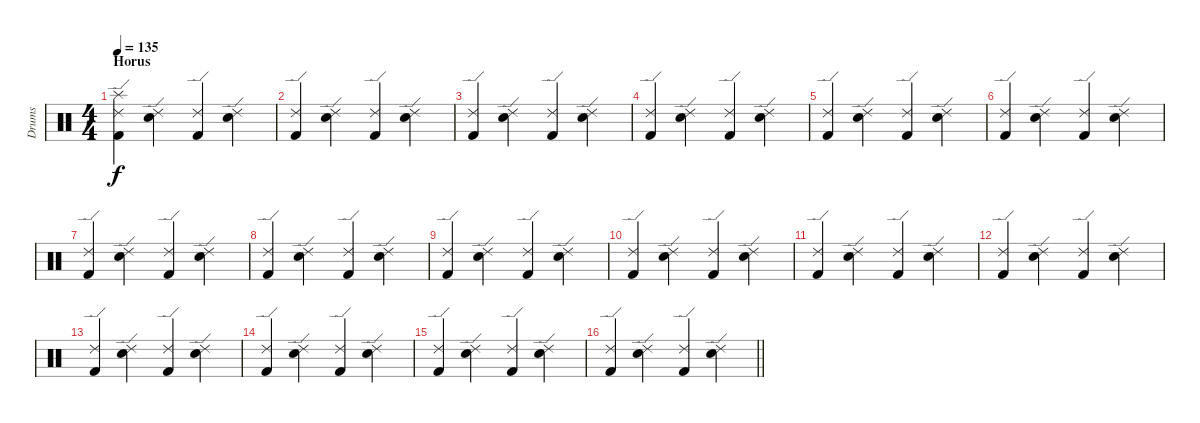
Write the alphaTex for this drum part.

\track ("Drums" "Drums") {instrument percussion}
\staff {score}
\articulation defaults
\ts (4 4)
\section ("" "Horus")
\tempo 135
\clef neutral
\ks c
("Kick (hit) 2" "Ride (edge) 2" "Splash (hit)").4{dy f} ("Snare (hit) 2" "Ride (edge) 2").4 ("Kick (hit) 2" "Ride (edge) 2").4 ("Snare (hit) 2" "Ride (edge) 2").4 |
("Kick (hit) 2" "Ride (edge) 2").4 ("Snare (hit) 2" "Ride (edge) 2").4 ("Kick (hit) 2" "Ride (edge) 2").4 ("Snare (hit) 2" "Ride (edge) 2").4 |
("Kick (hit) 2" "Ride (edge) 2").4 ("Snare (hit) 2" "Ride (edge) 2").4 ("Kick (hit) 2" "Ride (edge) 2").4 ("Snare (hit) 2" "Ride (edge) 2").4 |
("Kick (hit) 2" "Ride (edge) 2").4 ("Snare (hit) 2" "Ride (edge) 2").4 ("Kick (hit) 2" "Ride (edge) 2").4 ("Snare (hit) 2" "Ride (edge) 2").4 |
("Kick (hit) 2" "Ride (edge) 2").4 ("Snare (hit) 2" "Ride (edge) 2").4 ("Kick (hit) 2" "Ride (edge) 2").4 ("Snare (hit) 2" "Ride (edge) 2").4 |
("Kick (hit) 2" "Ride (edge) 2").4 ("Snare (hit) 2" "Ride (edge) 2").4 ("Kick (hit) 2" "Ride (edge) 2").4 ("Snare (hit) 2" "Ride (edge) 2").4 |
("Kick (hit) 2" "Ride (edge) 2").4 ("Snare (hit) 2" "Ride (edge) 2").4 ("Kick (hit) 2" "Ride (edge) 2").4 ("Snare (hit) 2" "Ride (edge) 2").4 |
("Kick (hit) 2" "Ride (edge) 2").4 ("Snare (hit) 2" "Ride (edge) 2").4 ("Kick (hit) 2" "Ride (edge) 2").4 ("Snare (hit) 2" "Ride (edge) 2").4 |
("Kick (hit) 2" "Ride (edge) 2").4 ("Snare (hit) 2" "Ride (edge) 2").4 ("Kick (hit) 2" "Ride (edge) 2").4 ("Snare (hit) 2" "Ride (edge) 2").4 |
("Kick (hit) 2" "Ride (edge) 2").4 ("Snare (hit) 2" "Ride (edge) 2").4 ("Kick (hit) 2" "Ride (edge) 2").4 ("Snare (hit) 2" "Ride (edge) 2").4 |
("Kick (hit) 2" "Ride (edge) 2").4 ("Snare (hit) 2" "Ride (edge) 2").4 ("Kick (hit) 2" "Ride (edge) 2").4 ("Snare (hit) 2" "Ride (edge) 2").4 |
("Kick (hit) 2" "Ride (edge) 2").4 ("Snare (hit) 2" "Ride (edge) 2").4 ("Kick (hit) 2" "Ride (edge) 2").4 ("Snare (hit) 2" "Ride (edge) 2").4 |
("Kick (hit) 2" "Ride (edge) 2").4 ("Snare (hit) 2" "Ride (edge) 2").4 ("Kick (hit) 2" "Ride (edge) 2").4 ("Snare (hit) 2" "Ride (edge) 2").4 |
("Kick (hit) 2" "Ride (edge) 2").4 ("Snare (hit) 2" "Ride (edge) 2").4 ("Kick (hit) 2" "Ride (edge) 2").4 ("Snare (hit) 2" "Ride (edge) 2").4 |
("Kick (hit) 2" "Ride (edge) 2").4 ("Snare (hit) 2" "Ride (edge) 2").4 ("Kick (hit) 2" "Ride (edge) 2").4 ("Snare (hit) 2" "Ride (edge) 2").4 |
\barLineRight lightlight
("Kick (hit) 2" "Ride (edge) 2").4 ("Snare (hit) 2" "Ride (edge) 2").4 ("Kick (hit) 2" "Ride (edge) 2").4 ("Snare (hit) 2" "Ride (edge) 2").4
